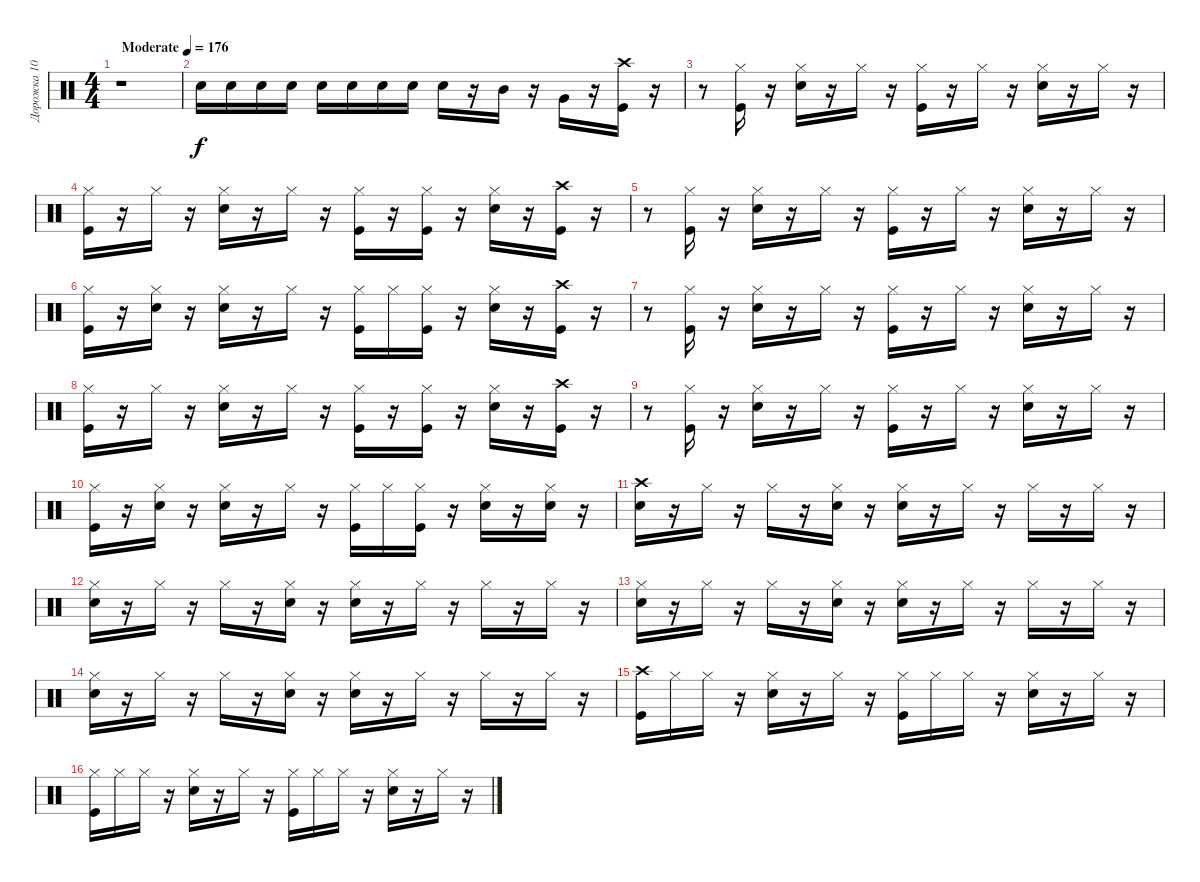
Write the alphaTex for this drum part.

\track ("Дорожка 10" "Дорожка 10") {instrument percussion}
\staff {score}
\articulation defaults
\ts (4 4)
\tempo (176 "Moderate")
\clef neutral
\ks c
r.1{dy f} |
"Electric Snare (hit)".16 "Electric Snare (hit)".16 "Electric Snare (hit)".16 "Electric Snare (hit)".16 "Electric Snare (hit)".16 "Electric Snare (hit)".16 "Electric Snare (hit)".16 "Electric Snare (hit)".16 "Electric Snare (hit)".16 r.16 "Mid Tom (hit)".16 r.16 "Very Low Tom (hit)".16 r.16 ("Kick (hit)" "Crash high (hit)").16 r.16 |
r.8 ("Hi-Hat (closed)" "Kick (hit)").16 r.16 ("Electric Snare (hit)" "Hi-Hat (closed)").16 r.16 "Hi-Hat (closed)".16 r.16 ("Kick (hit)" "Hi-Hat (closed)").16 r.16 "Hi-Hat (closed)".16 r.16 ("Electric Snare (hit)" "Hi-Hat (closed)").16 r.16 "Hi-Hat (closed)".16 r.16 |
("Kick (hit)" "Hi-Hat (closed)").16 r.16 "Hi-Hat (closed)".16 r.16 ("Electric Snare (hit)" "Hi-Hat (closed)").16 r.16 "Hi-Hat (closed)".16 r.16 ("Kick (hit)" "Hi-Hat (closed)").16 r.16 ("Kick (hit)" "Hi-Hat (closed)").16 r.16 ("Hi-Hat (closed)" "Electric Snare (hit)").16 r.16 ("Kick (hit)" "Crash high (hit)").16 r.16 |
r.8 ("Hi-Hat (closed)" "Kick (hit)").16 r.16 ("Hi-Hat (closed)" "Electric Snare (hit)").16 r.16 "Hi-Hat (closed)".16 r.16 ("Kick (hit)" "Hi-Hat (closed)").16 r.16 "Hi-Hat (closed)".16 r.16 ("Electric Snare (hit)" "Hi-Hat (closed)").16 r.16 "Hi-Hat (closed)".16 r.16 |
("Kick (hit)" "Hi-Hat (closed)").16 r.16 ("Electric Snare (hit)" "Hi-Hat (closed)").16 r.16 ("Hi-Hat (closed)" "Electric Snare (hit)").16 r.16 "Hi-Hat (closed)".16 r.16 ("Kick (hit)" "Hi-Hat (closed)").16 "Hi-Hat (closed)".16 ("Hi-Hat (closed)" "Kick (hit)").16 r.16 ("Hi-Hat (closed)" "Electric Snare (hit)").16 r.16 ("Kick (hit)" "Crash high (hit)").16 r.16 |
r.8 ("Kick (hit)" "Hi-Hat (closed)").16 r.16 ("Hi-Hat (closed)" "Electric Snare (hit)").16 r.16 "Hi-Hat (closed)".16 r.16 ("Hi-Hat (closed)" "Kick (hit)").16 r.16 "Hi-Hat (closed)".16 r.16 ("Electric Snare (hit)" "Hi-Hat (closed)").16 r.16 "Hi-Hat (closed)".16 r.16 |
("Kick (hit)" "Hi-Hat (closed)").16 r.16 "Hi-Hat (closed)".16 r.16 ("Electric Snare (hit)" "Hi-Hat (closed)").16 r.16 "Hi-Hat (closed)".16 r.16 ("Kick (hit)" "Hi-Hat (closed)").16 r.16 ("Kick (hit)" "Hi-Hat (closed)").16 r.16 ("Hi-Hat (closed)" "Electric Snare (hit)").16 r.16 ("Kick (hit)" "Crash high (hit)").16 r.16 |
r.8 ("Hi-Hat (closed)" "Kick (hit)").16 r.16 ("Electric Snare (hit)" "Hi-Hat (closed)").16 r.16 "Hi-Hat (closed)".16 r.16 ("Kick (hit)" "Hi-Hat (closed)").16 r.16 "Hi-Hat (closed)".16 r.16 ("Hi-Hat (closed)" "Electric Snare (hit)").16 r.16 "Hi-Hat (closed)".16 r.16 |
("Hi-Hat (closed)" "Kick (hit)").16 r.16 ("Electric Snare (hit)" "Hi-Hat (closed)").16 r.16 ("Hi-Hat (closed)" "Electric Snare (hit)").16 r.16 "Hi-Hat (closed)".16 r.16 ("Kick (hit)" "Hi-Hat (closed)").16 "Hi-Hat (closed)".16 ("Hi-Hat (closed)" "Kick (hit)").16 r.16 ("Electric Snare (hit)" "Hi-Hat (closed)").16 r.16 ("Electric Snare (hit)" "Hi-Hat (closed)").16 r.16 |
("Crash high (hit)" "Electric Snare (hit)").16 r.16 "Hi-Hat (closed)".16 r.16 "Hi-Hat (closed)".16 r.16 ("Electric Snare (hit)" "Hi-Hat (closed)").16 r.16 ("Electric Snare (hit)" "Hi-Hat (closed)").16 r.16 "Hi-Hat (closed)".16 r.16 "Hi-Hat (closed)".16 r.16 "Hi-Hat (closed)".16 r.16 |
("Hi-Hat (closed)" "Electric Snare (hit)").16 r.16 "Hi-Hat (closed)".16 r.16 "Hi-Hat (closed)".16 r.16 ("Hi-Hat (closed)" "Electric Snare (hit)").16 r.16 ("Hi-Hat (closed)" "Electric Snare (hit)").16 r.16 "Hi-Hat (closed)".16 r.16 "Hi-Hat (closed)".16 r.16 "Hi-Hat (closed)".16 r.16 |
("Hi-Hat (closed)" "Electric Snare (hit)").16 r.16 "Hi-Hat (closed)".16 r.16 "Hi-Hat (closed)".16 r.16 ("Hi-Hat (closed)" "Electric Snare (hit)").16 r.16 ("Hi-Hat (closed)" "Electric Snare (hit)").16 r.16 "Hi-Hat (closed)".16 r.16 "Hi-Hat (closed)".16 r.16 "Hi-Hat (closed)".16 r.16 |
("Hi-Hat (closed)" "Electric Snare (hit)").16 r.16 "Hi-Hat (closed)".16 r.16 "Hi-Hat (closed)".16 r.16 ("Hi-Hat (closed)" "Electric Snare (hit)").16 r.16 ("Hi-Hat (closed)" "Electric Snare (hit)").16 r.16 "Hi-Hat (closed)".16 r.16 "Hi-Hat (closed)".16 r.16 "Hi-Hat (closed)".16 r.16 |
("Crash high (hit)" "Kick (hit)").16 "Hi-Hat (closed)".16 "Hi-Hat (closed)".16 r.16 ("Electric Snare (hit)" "Hi-Hat (closed)").16 r.16 "Hi-Hat (closed)".16 r.16 ("Kick (hit)" "Hi-Hat (closed)").16 "Hi-Hat (closed)".16 "Hi-Hat (closed)".16 r.16 ("Electric Snare (hit)" "Hi-Hat (closed)").16 r.16 "Hi-Hat (closed)".16 r.16 |
("Kick (hit)" "Hi-Hat (closed)").16 "Hi-Hat (closed)".16 "Hi-Hat (closed)".16 r.16 ("Electric Snare (hit)" "Hi-Hat (closed)").16 r.16 "Hi-Hat (closed)".16 r.16 ("Kick (hit)" "Hi-Hat (closed)").16 "Hi-Hat (closed)".16 "Hi-Hat (closed)".16 r.16 ("Electric Snare (hit)" "Hi-Hat (closed)").16 r.16 "Hi-Hat (closed)".16 r.16
